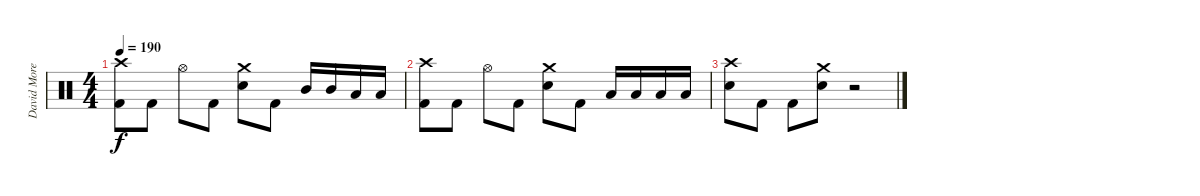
\track ("David Moreno" "David More") {instrument percussion}
\staff {score}
\articulation defaults
\ts (4 4)
\tempo 190
\clef neutral
\ks c
("Crash high (hit)" "Kick (hit) 2").8{dy f} "Kick (hit) 2".8 "Hi-Hat (open)".8 "Kick (hit) 2".8 ("Crash medium (hit)" "Snare (hit) 2").8 "Kick (hit) 2".8 "Mid Tom (hit)".16 "Mid Tom (hit)".16 "Low Tom (hit)".16 "Low Tom (hit)".16 |
("Crash high (hit)" "Kick (hit) 2").8 "Kick (hit) 2".8 "Hi-Hat (open)".8 "Kick (hit) 2".8 ("Crash medium (hit)" "Snare (hit) 2").8 "Kick (hit) 2".8 "Low Tom (hit)".16 "Low Tom (hit)".16 "Low Floor Tom (hit)".16 "Low Floor Tom (hit)".16 |
("Crash high (hit)" "Snare (hit) 2").8 "Kick (hit) 2".8 "Kick (hit) 2".8 ("Crash medium (hit)" "Snare (hit) 2").8 r.2
